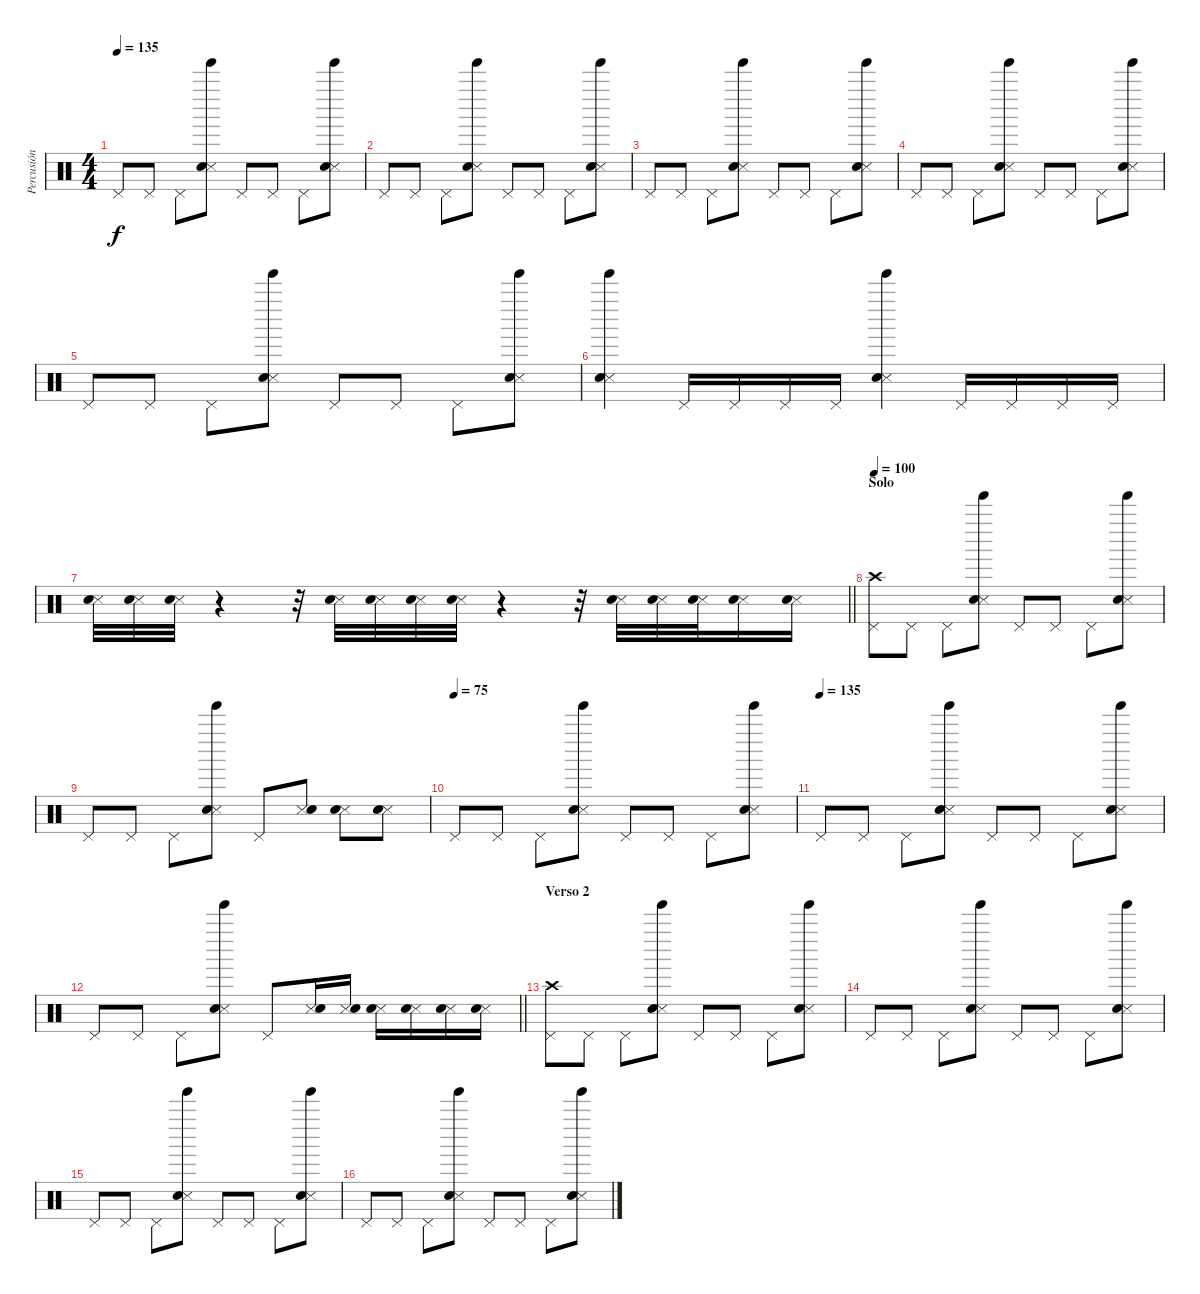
\track ("Percusión" "Percusión") {instrument percussion}
\staff {score}
\articulation defaults
\ts (4 4)
\tempo 135
\clef neutral
\ks c "Pedal Hi-Hat (hit)".8{dy f} "Pedal Hi-Hat (hit)".8 "Pedal Hi-Hat (hit)".8
("Tinkle Bell (hit)" "Snare (side stick) 3" "Snare (hit) 2").8 "Pedal Hi-Hat (hit)".8 "Pedal Hi-Hat (hit)".8 "Pedal Hi-Hat (hit)".8 ("Tinkle Bell (hit)" "Snare (side stick) 3" "Snare (hit) 2").8 |
"Pedal Hi-Hat (hit)".8 "Pedal Hi-Hat (hit)".8 "Pedal Hi-Hat (hit)".8 ("Tinkle Bell (hit)" "Snare (side stick) 3" "Snare (hit) 2").8 "Pedal Hi-Hat (hit)".8 "Pedal Hi-Hat (hit)".8 "Pedal Hi-Hat (hit)".8 ("Tinkle Bell (hit)" "Snare (side stick) 3" "Snare (hit) 2").8 |
"Pedal Hi-Hat (hit)".8 "Pedal Hi-Hat (hit)".8 "Pedal Hi-Hat (hit)".8 ("Tinkle Bell (hit)" "Snare (side stick) 3" "Snare (hit) 2").8 "Pedal Hi-Hat (hit)".8 "Pedal Hi-Hat (hit)".8 "Pedal Hi-Hat (hit)".8 ("Tinkle Bell (hit)" "Snare (side stick) 3" "Snare (hit) 2").8 |
"Pedal Hi-Hat (hit)".8 "Pedal Hi-Hat (hit)".8 "Pedal Hi-Hat (hit)".8 ("Tinkle Bell (hit)" "Snare (side stick) 3" "Snare (hit) 2").8 "Pedal Hi-Hat (hit)".8 "Pedal Hi-Hat (hit)".8 "Pedal Hi-Hat (hit)".8 ("Tinkle Bell (hit)" "Snare (side stick) 3" "Snare (hit) 2").8 |
"Pedal Hi-Hat (hit)".8 "Pedal Hi-Hat (hit)".8 "Pedal Hi-Hat (hit)".8 ("Tinkle Bell (hit)" "Snare (side stick) 3" "Snare (hit) 2").8 "Pedal Hi-Hat (hit)".8 "Pedal Hi-Hat (hit)".8 "Pedal Hi-Hat (hit)".8 ("Tinkle Bell (hit)" "Snare (side stick) 3" "Snare (hit) 2").8 |
("Tinkle Bell (hit)" "Snare (side stick) 3" "Snare (hit) 2").4 "Pedal Hi-Hat (hit)".16 "Pedal Hi-Hat (hit)".16 "Pedal Hi-Hat (hit)".16 "Pedal Hi-Hat (hit)".16 ("Tinkle Bell (hit)" "Snare (side stick) 3" "Snare (hit) 2").4 "Pedal Hi-Hat (hit)".16 "Pedal Hi-Hat (hit)".16 "Pedal Hi-Hat (hit)".16 "Pedal Hi-Hat (hit)".16 |
\barLineRight lightlight
("Snare (side stick) 3" "Snare (hit) 2").32 ("Snare (side stick) 3" "Snare (hit) 2").32 ("Snare (side stick) 3" "Snare (hit) 2").32 r.4 r.32 ("Snare (side stick) 3" "Snare (hit) 2").32 ("Snare (side stick) 3" "Snare (hit) 2").32 ("Snare (side stick) 3" "Snare (hit) 2").32 ("Snare (side stick) 3" "Snare (hit) 2").32 r.4 r.32 ("Snare (side stick) 3" "Snare (hit) 2").32 ("Snare (side stick) 3" "Snare (hit) 2").32 ("Snare (side stick) 3" "Snare (hit) 2").32 ("Snare (side stick) 3" "Snare (hit) 2").16 ("Snare (side stick) 3" "Snare (hit) 2").16 |
\section ("" "Solo")
\tempo 100
("Crash high (hit)" "Pedal Hi-Hat (hit)").8 "Pedal Hi-Hat (hit)".8 "Pedal Hi-Hat (hit)".8 ("Tinkle Bell (hit)" "Snare (side stick) 3" "Snare (hit) 2").8 "Pedal Hi-Hat (hit)".8 "Pedal Hi-Hat (hit)".8 "Pedal Hi-Hat (hit)".8 ("Tinkle Bell (hit)" "Snare (side stick) 3" "Snare (hit) 2").8 |
"Pedal Hi-Hat (hit)".8 "Pedal Hi-Hat (hit)".8 "Pedal Hi-Hat (hit)".8 ("Tinkle Bell (hit)" "Snare (side stick) 3" "Snare (hit) 2").8 "Pedal Hi-Hat (hit)".8 ("Snare (side stick) 3" "Snare (hit) 2").8 ("Snare (side stick) 3" "Snare (hit) 2").8 ("Snare (side stick) 3" "Snare (hit) 2").8 |
\tempo (75)
"Pedal Hi-Hat (hit)".8 "Pedal Hi-Hat (hit)".8 "Pedal Hi-Hat (hit)".8 ("Tinkle Bell (hit)" "Snare (side stick) 3" "Snare (hit) 2").8 "Pedal Hi-Hat (hit)".8 "Pedal Hi-Hat (hit)".8 "Pedal Hi-Hat (hit)".8 ("Tinkle Bell (hit)" "Snare (side stick) 3" "Snare (hit) 2").8 |
\tempo (135)
"Pedal Hi-Hat (hit)".8 "Pedal Hi-Hat (hit)".8 "Pedal Hi-Hat (hit)".8 ("Tinkle Bell (hit)" "Snare (side stick) 3" "Snare (hit) 2").8 "Pedal Hi-Hat (hit)".8 "Pedal Hi-Hat (hit)".8 "Pedal Hi-Hat (hit)".8 ("Tinkle Bell (hit)" "Snare (side stick) 3" "Snare (hit) 2").8 |
\barLineRight lightlight "Pedal Hi-Hat (hit)".8 "Pedal Hi-Hat (hit)".8 "Pedal Hi-Hat (hit)".8
("Tinkle Bell (hit)" "Snare (side stick) 3" "Snare (hit) 2").8 "Pedal Hi-Hat (hit)".8 ("Snare (side stick) 3" "Snare (hit) 2").16 ("Snare (side stick) 3" "Snare (hit) 2").16 ("Snare (side stick) 3" "Snare (hit) 2").16 ("Snare (side stick) 3" "Snare (hit) 2").16 ("Snare (side stick) 3" "Snare (hit) 2").16 ("Snare (side stick) 3" "Snare (hit) 2").16 |
\section ("" "Verso 2")
("Crash high (hit)" "Pedal Hi-Hat (hit)").8 "Pedal Hi-Hat (hit)".8 "Pedal Hi-Hat (hit)".8 ("Tinkle Bell (hit)" "Snare (side stick) 3" "Snare (hit) 2").8 "Pedal Hi-Hat (hit)".8 "Pedal Hi-Hat (hit)".8 "Pedal Hi-Hat (hit)".8 ("Tinkle Bell (hit)" "Snare (side stick) 3" "Snare (hit) 2").8 |
"Pedal Hi-Hat (hit)".8 "Pedal Hi-Hat (hit)".8 "Pedal Hi-Hat (hit)".8 ("Tinkle Bell (hit)" "Snare (side stick) 3" "Snare (hit) 2").8 "Pedal Hi-Hat (hit)".8 "Pedal Hi-Hat (hit)".8 "Pedal Hi-Hat (hit)".8 ("Tinkle Bell (hit)" "Snare (side stick) 3" "Snare (hit) 2").8 |
"Pedal Hi-Hat (hit)".8 "Pedal Hi-Hat (hit)".8 "Pedal Hi-Hat (hit)".8 ("Tinkle Bell (hit)" "Snare (side stick) 3" "Snare (hit) 2").8 "Pedal Hi-Hat (hit)".8 "Pedal Hi-Hat (hit)".8 "Pedal Hi-Hat (hit)".8 ("Tinkle Bell (hit)" "Snare (side stick) 3" "Snare (hit) 2").8 |
"Pedal Hi-Hat (hit)".8 "Pedal Hi-Hat (hit)".8 "Pedal Hi-Hat (hit)".8 ("Tinkle Bell (hit)" "Snare (side stick) 3" "Snare (hit) 2").8 "Pedal Hi-Hat (hit)".8 "Pedal Hi-Hat (hit)".8 "Pedal Hi-Hat (hit)".8 ("Tinkle Bell (hit)" "Snare (side stick) 3" "Snare (hit) 2").8
